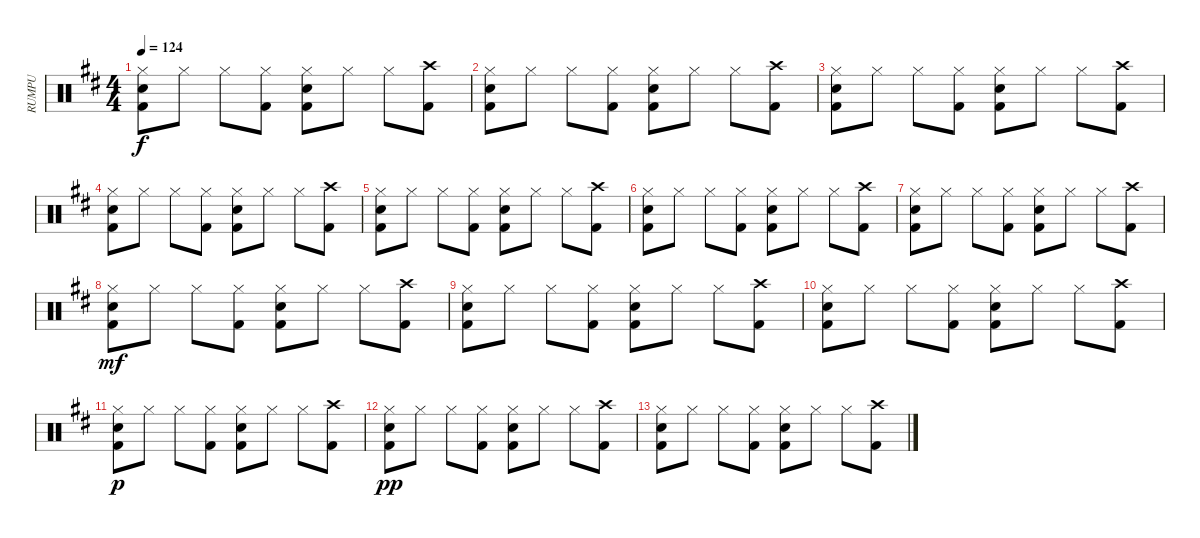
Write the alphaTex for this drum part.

\track ("RUMPU" "RUMPU") {instrument percussion}
\staff {score}
\articulation defaults
\ts (4 4)
\tempo 124
\clef neutral
\ks d
("Hi-Hat (closed)" "Kick (hit) 2" "Electric Snare (hit)").8{dy f} "Hi-Hat (closed)".8 "Hi-Hat (closed)".8 ("Hi-Hat (closed)" "Kick (hit) 2").8 ("Hi-Hat (closed)" "Kick (hit) 2" "Electric Snare (hit)").8 "Hi-Hat (closed)".8 "Hi-Hat (closed)".8 ("Crash high (hit)" "Kick (hit) 2").8 |
("Hi-Hat (closed)" "Kick (hit) 2" "Electric Snare (hit)").8 "Hi-Hat (closed)".8 "Hi-Hat (closed)".8 ("Hi-Hat (closed)" "Kick (hit) 2").8 ("Hi-Hat (closed)" "Kick (hit) 2" "Electric Snare (hit)").8 "Hi-Hat (closed)".8 "Hi-Hat (closed)".8 ("Crash high (hit)" "Kick (hit) 2").8 |
("Hi-Hat (closed)" "Kick (hit) 2" "Electric Snare (hit)").8 "Hi-Hat (closed)".8 "Hi-Hat (closed)".8 ("Hi-Hat (closed)" "Kick (hit) 2").8 ("Hi-Hat (closed)" "Kick (hit) 2" "Electric Snare (hit)").8 "Hi-Hat (closed)".8 "Hi-Hat (closed)".8 ("Crash high (hit)" "Kick (hit) 2").8 |
("Hi-Hat (closed)" "Kick (hit) 2" "Electric Snare (hit)").8 "Hi-Hat (closed)".8 "Hi-Hat (closed)".8 ("Hi-Hat (closed)" "Kick (hit) 2").8 ("Hi-Hat (closed)" "Kick (hit) 2" "Electric Snare (hit)").8 "Hi-Hat (closed)".8 "Hi-Hat (closed)".8 ("Crash high (hit)" "Kick (hit) 2").8 |
("Hi-Hat (closed)" "Kick (hit) 2" "Electric Snare (hit)").8 "Hi-Hat (closed)".8 "Hi-Hat (closed)".8 ("Hi-Hat (closed)" "Kick (hit) 2").8 ("Hi-Hat (closed)" "Kick (hit) 2" "Electric Snare (hit)").8 "Hi-Hat (closed)".8 "Hi-Hat (closed)".8 ("Crash high (hit)" "Kick (hit) 2").8 |
("Hi-Hat (closed)" "Kick (hit) 2" "Electric Snare (hit)").8 "Hi-Hat (closed)".8 "Hi-Hat (closed)".8 ("Hi-Hat (closed)" "Kick (hit) 2").8 ("Hi-Hat (closed)" "Kick (hit) 2" "Electric Snare (hit)").8 "Hi-Hat (closed)".8 "Hi-Hat (closed)".8 ("Crash high (hit)" "Kick (hit) 2").8 |
("Hi-Hat (closed)" "Kick (hit) 2" "Electric Snare (hit)").8 "Hi-Hat (closed)".8 "Hi-Hat (closed)".8 ("Hi-Hat (closed)" "Kick (hit) 2").8 ("Hi-Hat (closed)" "Kick (hit) 2" "Electric Snare (hit)").8 "Hi-Hat (closed)".8 "Hi-Hat (closed)".8 ("Crash high (hit)" "Kick (hit) 2").8 |
("Hi-Hat (closed)" "Kick (hit) 2" "Electric Snare (hit)").8{dy mf} "Hi-Hat (closed)".8 "Hi-Hat (closed)".8 ("Hi-Hat (closed)" "Kick (hit) 2").8 ("Hi-Hat (closed)" "Kick (hit) 2" "Electric Snare (hit)").8 "Hi-Hat (closed)".8 "Hi-Hat (closed)".8 ("Crash high (hit)" "Kick (hit) 2").8 |
("Hi-Hat (closed)" "Kick (hit) 2" "Electric Snare (hit)").8 "Hi-Hat (closed)".8 "Hi-Hat (closed)".8 ("Hi-Hat (closed)" "Kick (hit) 2").8 ("Hi-Hat (closed)" "Kick (hit) 2" "Electric Snare (hit)").8 "Hi-Hat (closed)".8 "Hi-Hat (closed)".8 ("Crash high (hit)" "Kick (hit) 2").8 |
("Hi-Hat (closed)" "Kick (hit) 2" "Electric Snare (hit)").8 "Hi-Hat (closed)".8 "Hi-Hat (closed)".8 ("Hi-Hat (closed)" "Kick (hit) 2").8 ("Hi-Hat (closed)" "Kick (hit) 2" "Electric Snare (hit)").8 "Hi-Hat (closed)".8 "Hi-Hat (closed)".8 ("Crash high (hit)" "Kick (hit) 2").8 |
("Hi-Hat (closed)" "Kick (hit) 2" "Electric Snare (hit)").8{dy p} "Hi-Hat (closed)".8 "Hi-Hat (closed)".8 ("Hi-Hat (closed)" "Kick (hit) 2").8 ("Hi-Hat (closed)" "Kick (hit) 2" "Electric Snare (hit)").8 "Hi-Hat (closed)".8 "Hi-Hat (closed)".8 ("Crash high (hit)" "Kick (hit) 2").8 |
("Hi-Hat (closed)" "Kick (hit) 2" "Electric Snare (hit)").8{dy pp} "Hi-Hat (closed)".8 "Hi-Hat (closed)".8 ("Hi-Hat (closed)" "Kick (hit) 2").8 ("Hi-Hat (closed)" "Kick (hit) 2" "Electric Snare (hit)").8 "Hi-Hat (closed)".8 "Hi-Hat (closed)".8 ("Crash high (hit)" "Kick (hit) 2").8 |
("Hi-Hat (closed)" "Kick (hit) 2" "Electric Snare (hit)").8 "Hi-Hat (closed)".8 "Hi-Hat (closed)".8 ("Hi-Hat (closed)" "Kick (hit) 2").8 ("Hi-Hat (closed)" "Kick (hit) 2" "Electric Snare (hit)").8 "Hi-Hat (closed)".8 "Hi-Hat (closed)".8 ("Crash high (hit)" "Kick (hit) 2").8
